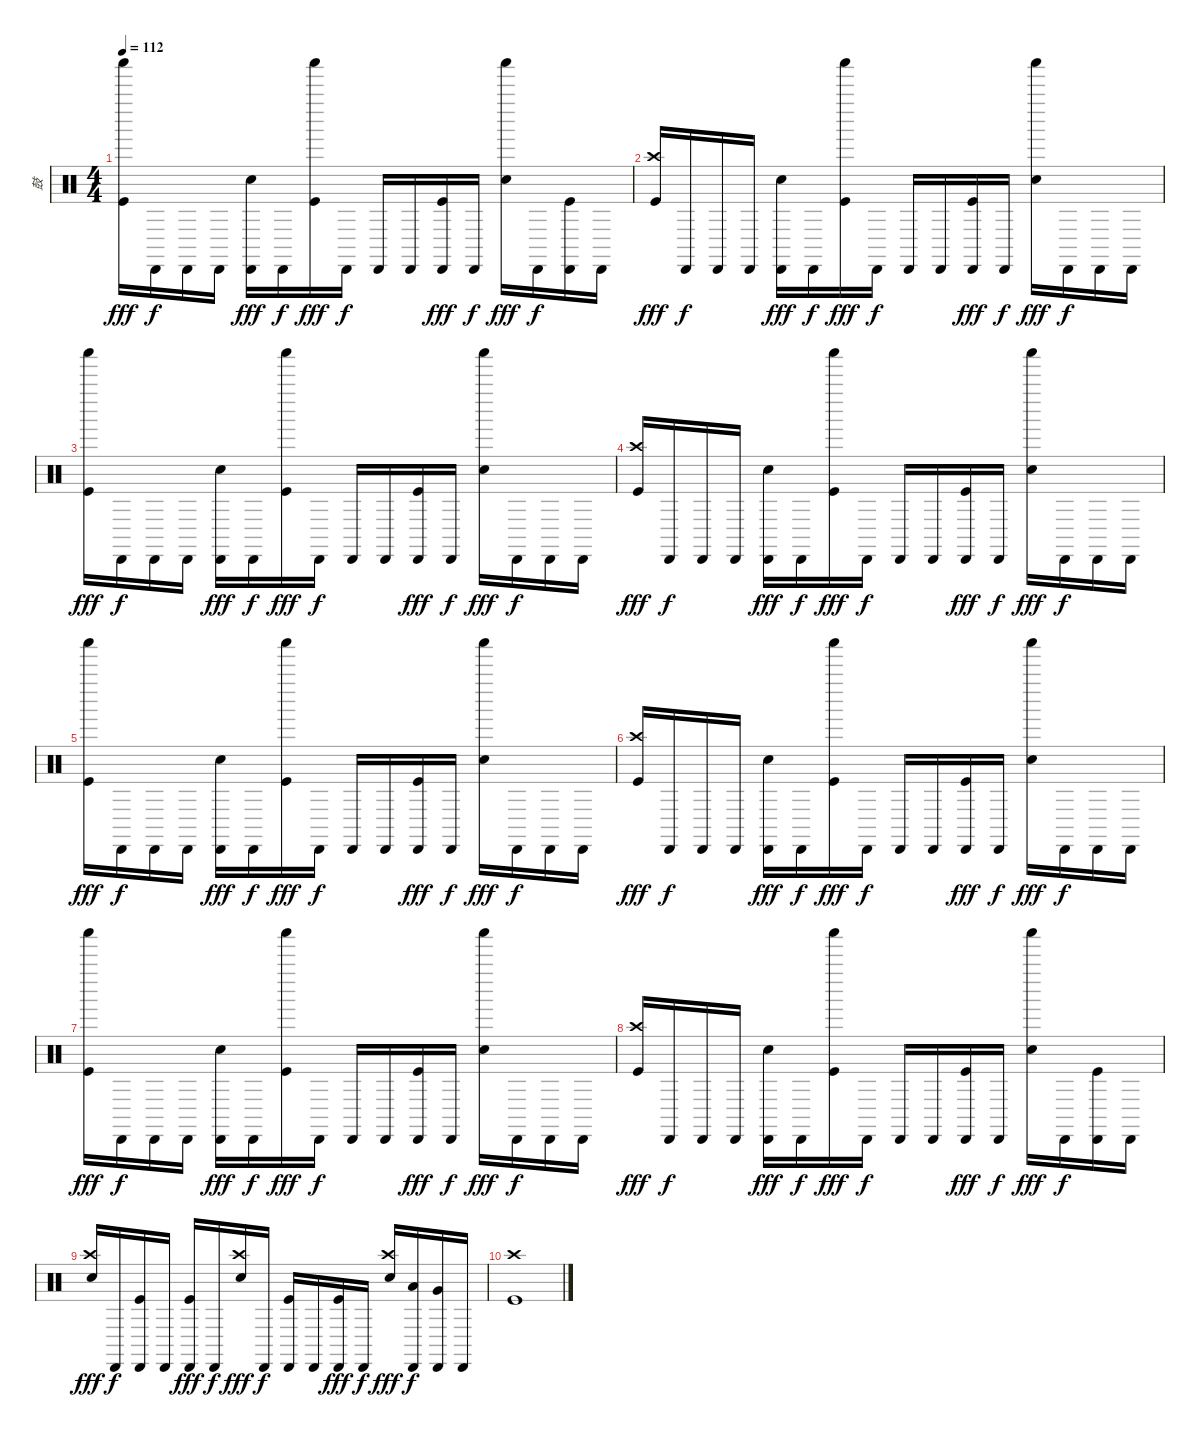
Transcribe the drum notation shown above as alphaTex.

\track ("鼓" "鼓") {instrument percussion}
\staff {score}
\articulation defaults
\ts (4 4)
\tempo 112
\clef neutral
\ks c
("Shaker (hit)" "Kick (hit)").16{dy fff} "Cabasa (hit)".16{dy f} "Cabasa (hit)".16 "Cabasa (hit)".16 ("Cabasa (hit)" "Electric Snare (hit)").16{dy fff} "Cabasa (hit)".16{dy f} ("Shaker (hit)" "Kick (hit)").16{dy fff} "Cabasa (hit)".16{dy f} "Cabasa (hit)".16 "Cabasa (hit)".16 ("Cabasa (hit)" "Kick (hit)").16{dy fff} "Cabasa (hit)".16{dy f} ("Shaker (hit)" "Electric Snare (hit)").16{dy fff} "Cabasa (hit)".16{dy f} ("Cabasa (hit)" "Kick (hit)").16 "Cabasa (hit)".16 |
("Crash high (hit)" "Kick (hit)").16{dy fff} "Cabasa (hit)".16{dy f} "Cabasa (hit)".16 "Cabasa (hit)".16 ("Cabasa (hit)" "Electric Snare (hit)").16{dy fff} "Cabasa (hit)".16{dy f} ("Shaker (hit)" "Kick (hit)").16{dy fff} "Cabasa (hit)".16{dy f} "Cabasa (hit)".16 "Cabasa (hit)".16 ("Cabasa (hit)" "Kick (hit)").16{dy fff} "Cabasa (hit)".16{dy f} ("Shaker (hit)" "Electric Snare (hit)").16{dy fff} "Cabasa (hit)".16{dy f} "Cabasa (hit)".16 "Cabasa (hit)".16 |
("Shaker (hit)" "Kick (hit)").16{dy fff} "Cabasa (hit)".16{dy f} "Cabasa (hit)".16 "Cabasa (hit)".16 ("Cabasa (hit)" "Electric Snare (hit)").16{dy fff} "Cabasa (hit)".16{dy f} ("Shaker (hit)" "Kick (hit)").16{dy fff} "Cabasa (hit)".16{dy f} "Cabasa (hit)".16 "Cabasa (hit)".16 ("Cabasa (hit)" "Kick (hit)").16{dy fff} "Cabasa (hit)".16{dy f} ("Shaker (hit)" "Electric Snare (hit)").16{dy fff} "Cabasa (hit)".16{dy f} "Cabasa (hit)".16 "Cabasa (hit)".16 |
("Crash high (hit)" "Kick (hit)").16{dy fff} "Cabasa (hit)".16{dy f} "Cabasa (hit)".16 "Cabasa (hit)".16 ("Cabasa (hit)" "Electric Snare (hit)").16{dy fff} "Cabasa (hit)".16{dy f} ("Shaker (hit)" "Kick (hit)").16{dy fff} "Cabasa (hit)".16{dy f} "Cabasa (hit)".16 "Cabasa (hit)".16 ("Cabasa (hit)" "Kick (hit)").16{dy fff} "Cabasa (hit)".16{dy f} ("Shaker (hit)" "Electric Snare (hit)").16{dy fff} "Cabasa (hit)".16{dy f} "Cabasa (hit)".16 "Cabasa (hit)".16 |
("Shaker (hit)" "Kick (hit)").16{dy fff} "Cabasa (hit)".16{dy f} "Cabasa (hit)".16 "Cabasa (hit)".16 ("Cabasa (hit)" "Electric Snare (hit)").16{dy fff} "Cabasa (hit)".16{dy f} ("Shaker (hit)" "Kick (hit)").16{dy fff} "Cabasa (hit)".16{dy f} "Cabasa (hit)".16 "Cabasa (hit)".16 ("Cabasa (hit)" "Kick (hit)").16{dy fff} "Cabasa (hit)".16{dy f} ("Shaker (hit)" "Electric Snare (hit)").16{dy fff} "Cabasa (hit)".16{dy f} "Cabasa (hit)".16 "Cabasa (hit)".16 |
("Crash high (hit)" "Kick (hit)").16{dy fff} "Cabasa (hit)".16{dy f} "Cabasa (hit)".16 "Cabasa (hit)".16 ("Cabasa (hit)" "Electric Snare (hit)").16{dy fff} "Cabasa (hit)".16{dy f} ("Shaker (hit)" "Kick (hit)").16{dy fff} "Cabasa (hit)".16{dy f} "Cabasa (hit)".16 "Cabasa (hit)".16 ("Cabasa (hit)" "Kick (hit)").16{dy fff} "Cabasa (hit)".16{dy f} ("Shaker (hit)" "Electric Snare (hit)").16{dy fff} "Cabasa (hit)".16{dy f} "Cabasa (hit)".16 "Cabasa (hit)".16 |
("Shaker (hit)" "Kick (hit)").16{dy fff} "Cabasa (hit)".16{dy f} "Cabasa (hit)".16 "Cabasa (hit)".16 ("Cabasa (hit)" "Electric Snare (hit)").16{dy fff} "Cabasa (hit)".16{dy f} ("Shaker (hit)" "Kick (hit)").16{dy fff} "Cabasa (hit)".16{dy f} "Cabasa (hit)".16 "Cabasa (hit)".16 ("Cabasa (hit)" "Kick (hit)").16{dy fff} "Cabasa (hit)".16{dy f} ("Shaker (hit)" "Electric Snare (hit)").16{dy fff} "Cabasa (hit)".16{dy f} "Cabasa (hit)".16 "Cabasa (hit)".16 |
("Crash high (hit)" "Kick (hit)").16{dy fff} "Cabasa (hit)".16{dy f} "Cabasa (hit)".16 "Cabasa (hit)".16 ("Cabasa (hit)" "Electric Snare (hit)").16{dy fff} "Cabasa (hit)".16{dy f} ("Shaker (hit)" "Kick (hit)").16{dy fff} "Cabasa (hit)".16{dy f} "Cabasa (hit)".16 "Cabasa (hit)".16 ("Cabasa (hit)" "Kick (hit)").16{dy fff} "Cabasa (hit)".16{dy f} ("Shaker (hit)" "Electric Snare (hit)").16{dy fff} "Cabasa (hit)".16{dy f} ("Cabasa (hit)" "Kick (hit)").16 "Cabasa (hit)".16 |
("Crash high (hit)" "Electric Snare (hit)").16{dy fff} "Cabasa (hit)".16{dy f} ("Cabasa (hit)" "Kick (hit)").16 "Cabasa (hit)".16 ("Cabasa (hit)" "Kick (hit)").16{dy fff} "Cabasa (hit)".16{dy f} ("Crash high (hit)" "Electric Snare (hit)").16{dy fff} "Cabasa (hit)".16{dy f} ("Cabasa (hit)" "Kick (hit)").16 "Cabasa (hit)".16 ("Cabasa (hit)" "Kick (hit)").16{dy fff} "Cabasa (hit)".16{dy f} ("Crash high (hit)" "Electric Snare (hit)").16{dy fff} ("Cabasa (hit)" "Low Tom (hit)").16{dy f} ("Cabasa (hit)" "Very Low Tom (hit)").16 "Cabasa (hit)".16 |
("Crash high (hit)" "Kick (hit)").1
